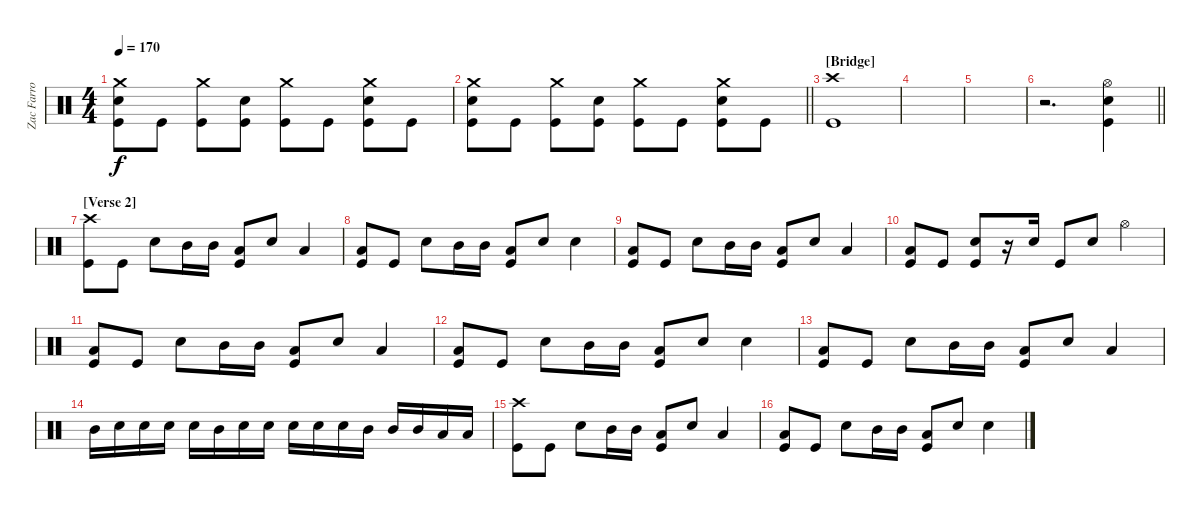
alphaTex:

\track ("Zac Farro" "Zac Farro") {instrument percussion}
\staff {score}
\articulation defaults
\ts (4 4)
\tempo 170
\clef neutral
\ks c
("Crash medium (hit)" "Electric Snare (hit)" "Kick (hit)").8{dy f} "Kick (hit)".8 ("Crash medium (hit)" "Kick (hit)").8 ("Electric Snare (hit)" "Kick (hit)").8 ("Crash medium (hit)" "Kick (hit)").8 "Kick (hit)".8 ("Crash medium (hit)" "Electric Snare (hit)" "Kick (hit)").8 "Kick (hit)".8 |
\barLineRight lightlight
("Crash medium (hit)" "Electric Snare (hit)" "Kick (hit)").8 "Kick (hit)".8 ("Crash medium (hit)" "Kick (hit)").8 ("Electric Snare (hit)" "Kick (hit)").8 ("Crash medium (hit)" "Kick (hit)").8 "Kick (hit)".8 ("Crash medium (hit)" "Electric Snare (hit)" "Kick (hit)").8 "Kick (hit)".8 |
\section ("" "[Bridge]")
("Crash high (hit)" "Kick (hit)").1 |
|
|
\barLineRight lightlight
r.2{d} ("Hi-Hat (open)" "Electric Snare (hit)" "Kick (hit)").4 |
\section ("" "[Verse 2]")
("Crash high (hit)" "Kick (hit)").8 "Kick (hit)".8 "Electric Snare (hit)".8 "Mid Tom (hit)".16 "Mid Tom (hit)".16 ("Low Tom (hit)" "Kick (hit)").8 "Electric Snare (hit)".8 "Low Tom (hit)".4 |
("Low Tom (hit)" "Kick (hit)").8 "Kick (hit)".8 "Electric Snare (hit)".8 "Mid Tom (hit)".16 "Mid Tom (hit)".16 ("Low Tom (hit)" "Kick (hit)").8 "Electric Snare (hit)".8 "Electric Snare (hit)".4 |
("Low Tom (hit)" "Kick (hit)").8 "Kick (hit)".8 "Electric Snare (hit)".8 "Mid Tom (hit)".16 "Mid Tom (hit)".16 ("Low Tom (hit)" "Kick (hit)").8 "Electric Snare (hit)".8 "Low Tom (hit)".4 |
("Low Tom (hit)" "Kick (hit)").8 "Kick (hit)".8 ("Electric Snare (hit)" "Kick (hit)").8 r.16 "Electric Snare (hit)".16 "Kick (hit)".8 "Electric Snare (hit)".8 "Hi-Hat (open)".4 |
("Low Tom (hit)" "Kick (hit)").8 "Kick (hit)".8 "Electric Snare (hit)".8 "Mid Tom (hit)".16 "Mid Tom (hit)".16 ("Low Tom (hit)" "Kick (hit)").8 "Electric Snare (hit)".8 "Low Tom (hit)".4 |
("Low Tom (hit)" "Kick (hit)").8 "Kick (hit)".8 "Electric Snare (hit)".8 "Mid Tom (hit)".16 "Mid Tom (hit)".16 ("Low Tom (hit)" "Kick (hit)").8 "Electric Snare (hit)".8 "Electric Snare (hit)".4 |
("Low Tom (hit)" "Kick (hit)").8 "Kick (hit)".8 "Electric Snare (hit)".8 "Mid Tom (hit)".16 "Mid Tom (hit)".16 ("Low Tom (hit)" "Kick (hit)").8 "Electric Snare (hit)".8 "Low Tom (hit)".4 |
"Mid Tom (hit)".16 "Electric Snare (hit)".16 "Electric Snare (hit)".16 "Electric Snare (hit)".16 "Electric Snare (hit)".16 "Mid Tom (hit)".16 "Electric Snare (hit)".16 "Electric Snare (hit)".16 "Electric Snare (hit)".16 "Electric Snare (hit)".16 "Electric Snare (hit)".16 "Mid Tom (hit)".16 "Mid Tom (hit)".16 "Mid Tom (hit)".16 "Low Tom (hit)".16 "Low Tom (hit)".16 |
("Crash high (hit)" "Kick (hit)").8 "Kick (hit)".8 "Electric Snare (hit)".8 "Mid Tom (hit)".16 "Mid Tom (hit)".16 ("Low Tom (hit)" "Kick (hit)").8 "Electric Snare (hit)".8 "Low Tom (hit)".4 |
("Low Tom (hit)" "Kick (hit)").8 "Kick (hit)".8 "Electric Snare (hit)".8 "Mid Tom (hit)".16 "Mid Tom (hit)".16 ("Low Tom (hit)" "Kick (hit)").8 "Electric Snare (hit)".8 "Electric Snare (hit)".4
